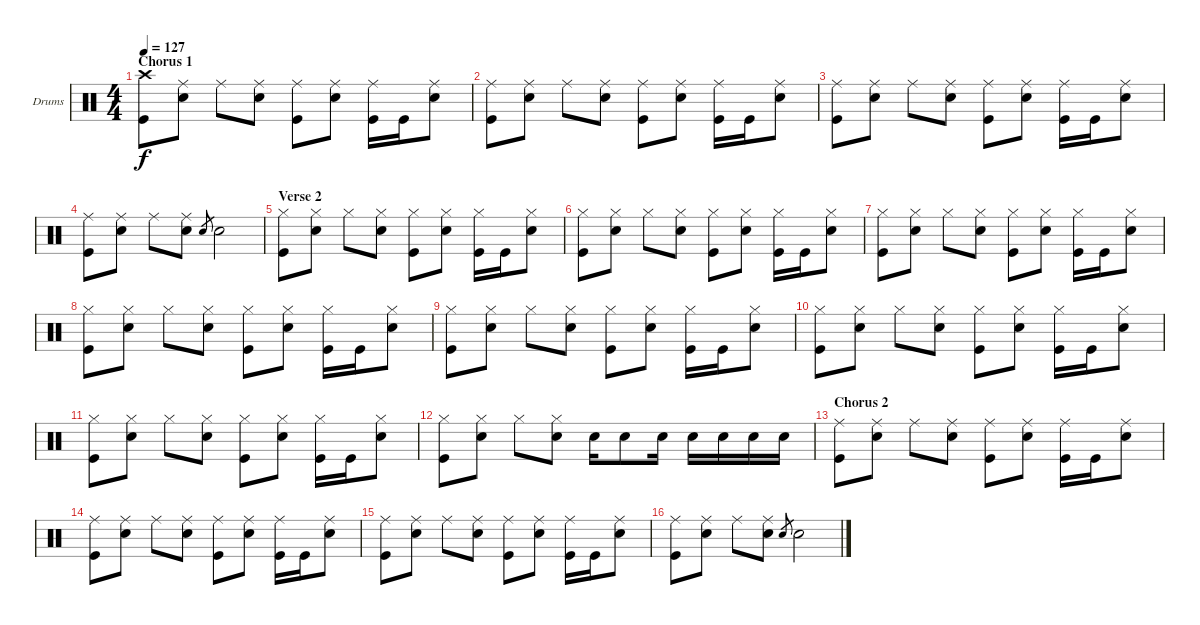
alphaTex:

\bracketExtendMode nobrackets
\firstSystemTrackNameOrientation horizontal
\otherSystemsTrackNameOrientation horizontal
\track ("Matt Cameron" "Drums") {instrument percussion}
\staff {score}
\articulation defaults
\ts (4 4)
\section ("" "Chorus 1")
\tempo 127
\clef neutral
\scale
0.333333
\ks c
("Kick (hit)" "Crash high (hit)").8{dy f} ("Snare (hit) 2" "Ride (middle)").8 "Ride (middle)".8 ("Snare (hit) 2" "Ride (middle)").8 ("Kick (hit)" "Ride (middle)").8 ("Snare (hit) 2" "Ride (middle)").8 ("Kick (hit)" "Ride (middle)").16 "Kick (hit)".16 ("Snare (hit) 2" "Ride (middle)").8 |
\scale
0.333333 ("Kick (hit)" "Ride (middle)").8 ("Snare (hit) 2" "Ride (middle)").8 "Ride (middle)".8 ("Snare (hit) 2" "Ride (middle)").8 ("Kick (hit)" "Ride (middle)").8 ("Snare (hit) 2" "Ride (middle)").8 ("Kick (hit)" "Ride (middle)").16 "Kick (hit)".16 ("Snare (hit) 2" "Ride (middle)").8 |
\scale
0.333333 ("Kick (hit)" "Ride (middle)").8 ("Snare (hit) 2" "Ride (middle)").8 "Ride (middle)".8 ("Snare (hit) 2" "Ride (middle)").8 ("Kick (hit)" "Ride (middle)").8 ("Snare (hit) 2" "Ride (middle)").8 ("Kick (hit)" "Ride (middle)").16 "Kick (hit)".16 ("Snare (hit) 2" "Ride (middle)").8 |
\scale
0.333333 ("Kick (hit)" "Ride (middle)").8 ("Snare (hit) 2" "Ride (middle)").8 "Ride (middle)".8 ("Snare (hit) 2" "Ride (middle)").8 "Snare (hit) 2".8{gr} "Snare (hit) 2".2 |
\section ("" "Verse 2")
\scale
0.333333 ("Kick (hit)" "Hi-Hat (closed)").8 ("Snare (hit) 2" "Hi-Hat (closed)").8 "Hi-Hat (closed)".8 ("Snare (hit) 2" "Hi-Hat (closed)").8 ("Kick (hit)" "Hi-Hat (closed)").8 ("Snare (hit) 2" "Hi-Hat (closed)").8 ("Kick (hit)" "Hi-Hat (closed)").16 "Kick (hit)".16 ("Snare (hit) 2" "Hi-Hat (closed)").8 |
\scale
0.333333 ("Kick (hit)" "Hi-Hat (closed)").8 ("Snare (hit) 2" "Hi-Hat (closed)").8 "Hi-Hat (closed)".8 ("Snare (hit) 2" "Hi-Hat (closed)").8 ("Kick (hit)" "Hi-Hat (closed)").8 ("Snare (hit) 2" "Hi-Hat (closed)").8 ("Kick (hit)" "Hi-Hat (closed)").16 "Kick (hit)".16 ("Snare (hit) 2" "Hi-Hat (closed)").8 |
\scale
0.333333 ("Kick (hit)" "Hi-Hat (closed)").8 ("Snare (hit) 2" "Hi-Hat (closed)").8 "Hi-Hat (closed)".8 ("Snare (hit) 2" "Hi-Hat (closed)").8 ("Kick (hit)" "Hi-Hat (closed)").8 ("Snare (hit) 2" "Hi-Hat (closed)").8 ("Kick (hit)" "Hi-Hat (closed)").16 "Kick (hit)".16 ("Snare (hit) 2" "Hi-Hat (closed)").8 |
\scale
0.333333 ("Kick (hit)" "Hi-Hat (closed)").8 ("Snare (hit) 2" "Hi-Hat (closed)").8 "Hi-Hat (closed)".8 ("Snare (hit) 2" "Hi-Hat (closed)").8 ("Kick (hit)" "Hi-Hat (closed)").8 ("Snare (hit) 2" "Hi-Hat (closed)").8 ("Kick (hit)" "Hi-Hat (closed)").16 "Kick (hit)".16 ("Snare (hit) 2" "Hi-Hat (closed)").8 |
\scale
0.333333 ("Kick (hit)" "Hi-Hat (closed)").8 ("Snare (hit) 2" "Hi-Hat (closed)").8 "Hi-Hat (closed)".8 ("Snare (hit) 2" "Hi-Hat (closed)").8 ("Kick (hit)" "Hi-Hat (closed)").8 ("Snare (hit) 2" "Hi-Hat (closed)").8 ("Kick (hit)" "Hi-Hat (closed)").16 "Kick (hit)".16 ("Snare (hit) 2" "Hi-Hat (closed)").8 |
\scale
0.333333 ("Kick (hit)" "Hi-Hat (closed)").8 ("Snare (hit) 2" "Hi-Hat (closed)").8 "Hi-Hat (closed)".8 ("Snare (hit) 2" "Hi-Hat (closed)").8 ("Kick (hit)" "Hi-Hat (closed)").8 ("Snare (hit) 2" "Hi-Hat (closed)").8 ("Kick (hit)" "Hi-Hat (closed)").16 "Kick (hit)".16 ("Snare (hit) 2" "Hi-Hat (closed)").8 |
\scale
0.333333 ("Kick (hit)" "Hi-Hat (closed)").8 ("Snare (hit) 2" "Hi-Hat (closed)").8 "Hi-Hat (closed)".8 ("Snare (hit) 2" "Hi-Hat (closed)").8 ("Kick (hit)" "Hi-Hat (closed)").8 ("Snare (hit) 2" "Hi-Hat (closed)").8 ("Kick (hit)" "Hi-Hat (closed)").16 "Kick (hit)".16 ("Snare (hit) 2" "Hi-Hat (closed)").8 |
\scale
0.333333 ("Kick (hit)" "Hi-Hat (closed)").8 ("Snare (hit) 2" "Hi-Hat (closed)").8 "Hi-Hat (closed)".8 ("Snare (hit) 2" "Hi-Hat (closed)").8 "Snare (hit) 2".16 "Snare (hit) 2".8 "Snare (hit) 2".16 "Snare (hit) 2".16 "Snare (hit) 2".16 "Snare (hit) 2".16 "Snare (hit) 2".16 |
\section ("" "Chorus 2")
\scale
0.333333 ("Kick (hit)" "Ride (middle)").8 ("Snare (hit) 2" "Ride (middle)").8 "Ride (middle)".8 ("Snare (hit) 2" "Ride (middle)").8 ("Kick (hit)" "Ride (middle)").8 ("Snare (hit) 2" "Ride (middle)").8 ("Kick (hit)" "Ride (middle)").16 "Kick (hit)".16 ("Snare (hit) 2" "Ride (middle)").8 |
\scale
0.333333 ("Kick (hit)" "Ride (middle)").8 ("Snare (hit) 2" "Ride (middle)").8 "Ride (middle)".8 ("Snare (hit) 2" "Ride (middle)").8 ("Kick (hit)" "Ride (middle)").8 ("Snare (hit) 2" "Ride (middle)").8 ("Kick (hit)" "Ride (middle)").16 "Kick (hit)".16 ("Snare (hit) 2" "Ride (middle)").8 |
\scale
0.333333 ("Kick (hit)" "Ride (middle)").8 ("Snare (hit) 2" "Ride (middle)").8 "Ride (middle)".8 ("Snare (hit) 2" "Ride (middle)").8 ("Kick (hit)" "Ride (middle)").8 ("Snare (hit) 2" "Ride (middle)").8 ("Kick (hit)" "Ride (middle)").16 "Kick (hit)".16 ("Snare (hit) 2" "Ride (middle)").8 |
\scale
0.333333 ("Kick (hit)" "Ride (middle)").8 ("Snare (hit) 2" "Ride (middle)").8 "Ride (middle)".8 ("Snare (hit) 2" "Ride (middle)").8 "Snare (hit) 2".8{gr} "Snare (hit) 2".2
